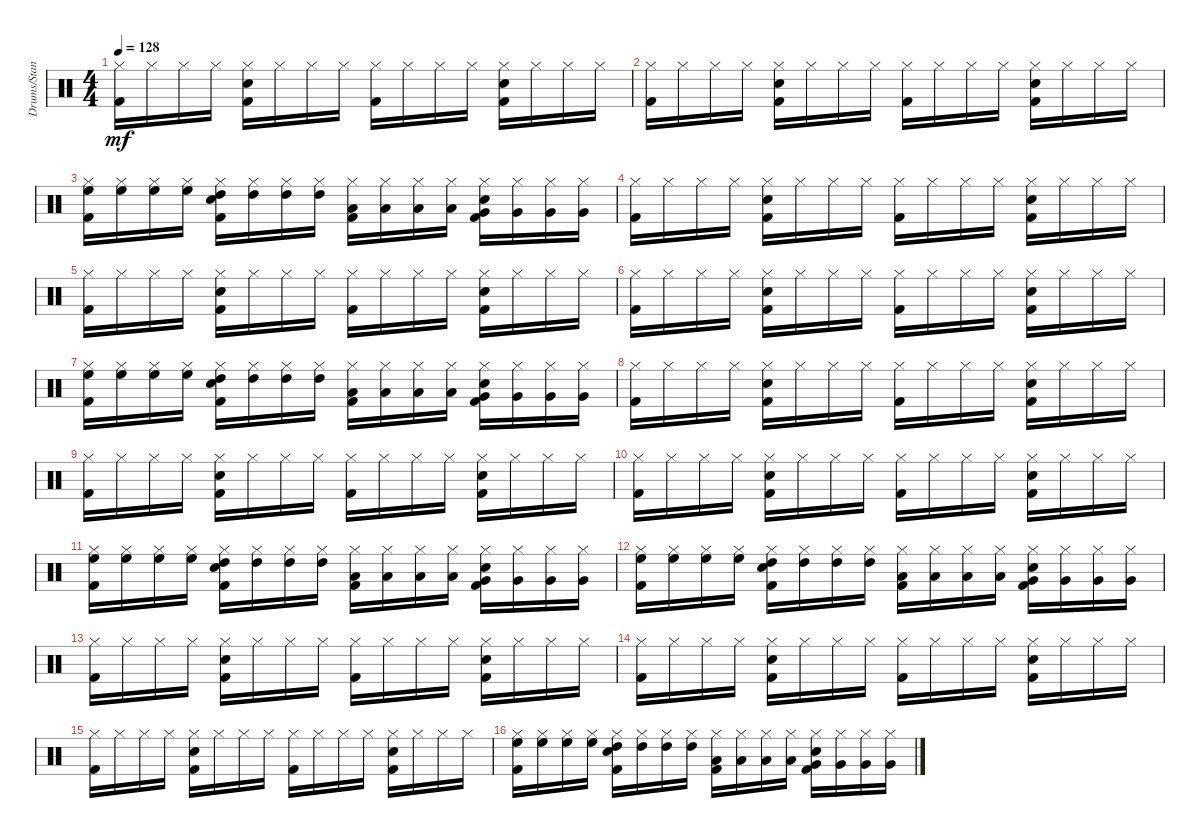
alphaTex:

\track ("Drums/Standard" "Drums/Stan") {instrument percussion}
\staff {score}
\articulation defaults
\ts (4 4)
\tempo 128
\clef neutral
\ks c
("Kick (hit) 2" "Hi-Hat (closed)").16{dy mf} "Hi-Hat (closed)".16 "Hi-Hat (closed)".16 "Hi-Hat (closed)".16 ("Snare (hit) 2" "Kick (hit) 2" "Hi-Hat (closed)").16 "Hi-Hat (closed)".16 "Hi-Hat (closed)".16 "Hi-Hat (closed)".16 ("Kick (hit) 2" "Hi-Hat (closed)").16 "Hi-Hat (closed)".16 "Hi-Hat (closed)".16 "Hi-Hat (closed)".16 ("Kick (hit) 2" "Hi-Hat (closed)" "Snare (hit) 2").16 "Hi-Hat (closed)".16 "Hi-Hat (closed)".16 "Hi-Hat (closed)".16 |
("Kick (hit) 2" "Hi-Hat (closed)").16 "Hi-Hat (closed)".16 "Hi-Hat (closed)".16 "Hi-Hat (closed)".16 ("Hi-Hat (closed)" "Kick (hit) 2" "Snare (hit) 2").16 "Hi-Hat (closed)".16 "Hi-Hat (closed)".16 "Hi-Hat (closed)".16 ("Kick (hit) 2" "Hi-Hat (closed)").16 "Hi-Hat (closed)".16 "Hi-Hat (closed)".16 "Hi-Hat (closed)".16 ("Kick (hit) 2" "Hi-Hat (closed)" "Snare (hit) 2").16 "Hi-Hat (closed)".16 "Hi-Hat (closed)".16 "Hi-Hat (closed)".16 |
("Kick (hit) 2" "Hi-Hat (closed)" "High Floor Tom (hit)").16 ("Hi-Hat (closed)" "High Floor Tom (hit)").16 ("Hi-Hat (closed)" "High Floor Tom (hit)").16 ("Hi-Hat (closed)" "High Floor Tom (hit)").16 ("Snare (hit) 2" "Kick (hit) 2" "Hi-Hat (closed)" "High Tom (hit)").16 ("Hi-Hat (closed)" "High Tom (hit)").16 ("Hi-Hat (closed)" "High Tom (hit)").16 ("Hi-Hat (closed)" "High Tom (hit)").16 ("Hi-Hat (closed)" "Kick (hit) 2" "Low Tom (hit)").16 ("Hi-Hat (closed)" "Low Tom (hit)").16 ("Hi-Hat (closed)" "Low Tom (hit)").16 ("Hi-Hat (closed)" "Low Tom (hit)").16 ("Hi-Hat (closed)" "Snare (hit) 2" "Kick (hit) 2" "Very Low Tom (hit)").16 ("Hi-Hat (closed)" "Very Low Tom (hit)").16 ("Hi-Hat (closed)" "Very Low Tom (hit)").16 ("Hi-Hat (closed)" "Very Low Tom (hit)").16 |
("Kick (hit) 2" "Hi-Hat (closed)").16 "Hi-Hat (closed)".16 "Hi-Hat (closed)".16 "Hi-Hat (closed)".16 ("Hi-Hat (closed)" "Kick (hit) 2" "Snare (hit) 2").16 "Hi-Hat (closed)".16 "Hi-Hat (closed)".16 "Hi-Hat (closed)".16 ("Kick (hit) 2" "Hi-Hat (closed)").16 "Hi-Hat (closed)".16 "Hi-Hat (closed)".16 "Hi-Hat (closed)".16 ("Kick (hit) 2" "Hi-Hat (closed)" "Snare (hit) 2").16 "Hi-Hat (closed)".16 "Hi-Hat (closed)".16 "Hi-Hat (closed)".16 |
("Hi-Hat (closed)" "Kick (hit) 2").16 "Hi-Hat (closed)".16 "Hi-Hat (closed)".16 "Hi-Hat (closed)".16 ("Hi-Hat (closed)" "Kick (hit) 2" "Snare (hit) 2").16 "Hi-Hat (closed)".16 "Hi-Hat (closed)".16 "Hi-Hat (closed)".16 ("Hi-Hat (closed)" "Kick (hit) 2").16 "Hi-Hat (closed)".16 "Hi-Hat (closed)".16 "Hi-Hat (closed)".16 ("Snare (hit) 2" "Hi-Hat (closed)" "Kick (hit) 2").16 "Hi-Hat (closed)".16 "Hi-Hat (closed)".16 "Hi-Hat (closed)".16 |
("Hi-Hat (closed)" "Kick (hit) 2").16 "Hi-Hat (closed)".16 "Hi-Hat (closed)".16 "Hi-Hat (closed)".16 ("Snare (hit) 2" "Kick (hit) 2" "Hi-Hat (closed)").16 "Hi-Hat (closed)".16 "Hi-Hat (closed)".16 "Hi-Hat (closed)".16 ("Hi-Hat (closed)" "Kick (hit) 2").16 "Hi-Hat (closed)".16 "Hi-Hat (closed)".16 "Hi-Hat (closed)".16 ("Snare (hit) 2" "Hi-Hat (closed)" "Kick (hit) 2").16 "Hi-Hat (closed)".16 "Hi-Hat (closed)".16 "Hi-Hat (closed)".16 |
("High Floor Tom (hit)" "Hi-Hat (closed)" "Kick (hit) 2").16 ("High Floor Tom (hit)" "Hi-Hat (closed)").16 ("High Floor Tom (hit)" "Hi-Hat (closed)").16 ("High Floor Tom (hit)" "Hi-Hat (closed)").16 ("High Tom (hit)" "Hi-Hat (closed)" "Kick (hit) 2" "Snare (hit) 2").16 ("High Tom (hit)" "Hi-Hat (closed)").16 ("High Tom (hit)" "Hi-Hat (closed)").16 ("High Tom (hit)" "Hi-Hat (closed)").16 ("Low Tom (hit)" "Kick (hit) 2" "Hi-Hat (closed)").16 ("Low Tom (hit)" "Hi-Hat (closed)").16 ("Low Tom (hit)" "Hi-Hat (closed)").16 ("Low Tom (hit)" "Hi-Hat (closed)").16 ("Very Low Tom (hit)" "Kick (hit) 2" "Snare (hit) 2" "Hi-Hat (closed)").16 ("Very Low Tom (hit)" "Hi-Hat (closed)").16 ("Very Low Tom (hit)" "Hi-Hat (closed)").16 ("Very Low Tom (hit)" "Hi-Hat (closed)").16 |
("Kick (hit) 2" "Hi-Hat (closed)").16 "Hi-Hat (closed)".16 "Hi-Hat (closed)".16 "Hi-Hat (closed)".16 ("Hi-Hat (closed)" "Kick (hit) 2" "Snare (hit) 2").16 "Hi-Hat (closed)".16 "Hi-Hat (closed)".16 "Hi-Hat (closed)".16 ("Kick (hit) 2" "Hi-Hat (closed)").16 "Hi-Hat (closed)".16 "Hi-Hat (closed)".16 "Hi-Hat (closed)".16 ("Kick (hit) 2" "Hi-Hat (closed)" "Snare (hit) 2").16 "Hi-Hat (closed)".16 "Hi-Hat (closed)".16 "Hi-Hat (closed)".16 |
("Hi-Hat (closed)" "Kick (hit) 2").16 "Hi-Hat (closed)".16 "Hi-Hat (closed)".16 "Hi-Hat (closed)".16 ("Hi-Hat (closed)" "Kick (hit) 2" "Snare (hit) 2").16 "Hi-Hat (closed)".16 "Hi-Hat (closed)".16 "Hi-Hat (closed)".16 ("Hi-Hat (closed)" "Kick (hit) 2").16 "Hi-Hat (closed)".16 "Hi-Hat (closed)".16 "Hi-Hat (closed)".16 ("Snare (hit) 2" "Hi-Hat (closed)" "Kick (hit) 2").16 "Hi-Hat (closed)".16 "Hi-Hat (closed)".16 "Hi-Hat (closed)".16 |
("Hi-Hat (closed)" "Kick (hit) 2").16 "Hi-Hat (closed)".16 "Hi-Hat (closed)".16 "Hi-Hat (closed)".16 ("Snare (hit) 2" "Kick (hit) 2" "Hi-Hat (closed)").16 "Hi-Hat (closed)".16 "Hi-Hat (closed)".16 "Hi-Hat (closed)".16 ("Hi-Hat (closed)" "Kick (hit) 2").16 "Hi-Hat (closed)".16 "Hi-Hat (closed)".16 "Hi-Hat (closed)".16 ("Snare (hit) 2" "Hi-Hat (closed)" "Kick (hit) 2").16 "Hi-Hat (closed)".16 "Hi-Hat (closed)".16 "Hi-Hat (closed)".16 |
("High Floor Tom (hit)" "Hi-Hat (closed)" "Kick (hit) 2").16 ("High Floor Tom (hit)" "Hi-Hat (closed)").16 ("High Floor Tom (hit)" "Hi-Hat (closed)").16 ("High Floor Tom (hit)" "Hi-Hat (closed)").16 ("High Tom (hit)" "Hi-Hat (closed)" "Kick (hit) 2" "Snare (hit) 2").16 ("High Tom (hit)" "Hi-Hat (closed)").16 ("High Tom (hit)" "Hi-Hat (closed)").16 ("High Tom (hit)" "Hi-Hat (closed)").16 ("Low Tom (hit)" "Kick (hit) 2" "Hi-Hat (closed)").16 ("Low Tom (hit)" "Hi-Hat (closed)").16 ("Low Tom (hit)" "Hi-Hat (closed)").16 ("Low Tom (hit)" "Hi-Hat (closed)").16 ("Very Low Tom (hit)" "Kick (hit) 2" "Snare (hit) 2" "Hi-Hat (closed)").16 ("Very Low Tom (hit)" "Hi-Hat (closed)").16 ("Very Low Tom (hit)" "Hi-Hat (closed)").16 ("Very Low Tom (hit)" "Hi-Hat (closed)").16 |
("High Floor Tom (hit)" "Hi-Hat (closed)" "Kick (hit) 2").16 ("High Floor Tom (hit)" "Hi-Hat (closed)").16 ("High Floor Tom (hit)" "Hi-Hat (closed)").16 ("High Floor Tom (hit)" "Hi-Hat (closed)").16 ("High Tom (hit)" "Hi-Hat (closed)" "Kick (hit) 2" "Snare (hit) 2").16 ("High Tom (hit)" "Hi-Hat (closed)").16 ("High Tom (hit)" "Hi-Hat (closed)").16 ("High Tom (hit)" "Hi-Hat (closed)").16 ("Low Tom (hit)" "Kick (hit) 2" "Hi-Hat (closed)").16 ("Low Tom (hit)" "Hi-Hat (closed)").16 ("Low Tom (hit)" "Hi-Hat (closed)").16 ("Low Tom (hit)" "Hi-Hat (closed)").16 ("Very Low Tom (hit)" "Kick (hit) 2" "Snare (hit) 2" "Hi-Hat (closed)").16 ("Very Low Tom (hit)" "Hi-Hat (closed)").16 ("Very Low Tom (hit)" "Hi-Hat (closed)").16 ("Very Low Tom (hit)" "Hi-Hat (closed)").16 |
("Kick (hit) 2" "Hi-Hat (closed)").16 "Hi-Hat (closed)".16 "Hi-Hat (closed)".16 "Hi-Hat (closed)".16 ("Snare (hit) 2" "Kick (hit) 2" "Hi-Hat (closed)").16 "Hi-Hat (closed)".16 "Hi-Hat (closed)".16 "Hi-Hat (closed)".16 ("Kick (hit) 2" "Hi-Hat (closed)").16 "Hi-Hat (closed)".16 "Hi-Hat (closed)".16 "Hi-Hat (closed)".16 ("Kick (hit) 2" "Hi-Hat (closed)" "Snare (hit) 2").16 "Hi-Hat (closed)".16 "Hi-Hat (closed)".16 "Hi-Hat (closed)".16 |
("Hi-Hat (closed)" "Kick (hit) 2").16 "Hi-Hat (closed)".16 "Hi-Hat (closed)".16 "Hi-Hat (closed)".16 ("Hi-Hat (closed)" "Kick (hit) 2" "Snare (hit) 2").16 "Hi-Hat (closed)".16 "Hi-Hat (closed)".16 "Hi-Hat (closed)".16 ("Kick (hit) 2" "Hi-Hat (closed)").16 "Hi-Hat (closed)".16 "Hi-Hat (closed)".16 "Hi-Hat (closed)".16 ("Kick (hit) 2" "Snare (hit) 2" "Hi-Hat (closed)").16 "Hi-Hat (closed)".16 "Hi-Hat (closed)".16 "Hi-Hat (closed)".16 |
("Hi-Hat (closed)" "Kick (hit) 2").16 "Hi-Hat (closed)".16 "Hi-Hat (closed)".16 "Hi-Hat (closed)".16 ("Hi-Hat (closed)" "Kick (hit) 2" "Snare (hit) 2").16 "Hi-Hat (closed)".16 "Hi-Hat (closed)".16 "Hi-Hat (closed)".16 ("Hi-Hat (closed)" "Kick (hit) 2").16 "Hi-Hat (closed)".16 "Hi-Hat (closed)".16 "Hi-Hat (closed)".16 ("Snare (hit) 2" "Hi-Hat (closed)" "Kick (hit) 2").16 "Hi-Hat (closed)".16 "Hi-Hat (closed)".16 "Hi-Hat (closed)".16 |
("Kick (hit) 2" "Hi-Hat (closed)" "High Floor Tom (hit)").16 ("Hi-Hat (closed)" "High Floor Tom (hit)").16 ("Hi-Hat (closed)" "High Floor Tom (hit)").16 ("Hi-Hat (closed)" "High Floor Tom (hit)").16 ("Snare (hit) 2" "Kick (hit) 2" "Hi-Hat (closed)" "High Tom (hit)").16 ("Hi-Hat (closed)" "High Tom (hit)").16 ("Hi-Hat (closed)" "High Tom (hit)").16 ("Hi-Hat (closed)" "High Tom (hit)").16 ("Hi-Hat (closed)" "Kick (hit) 2" "Low Tom (hit)").16 ("Hi-Hat (closed)" "Low Tom (hit)").16 ("Hi-Hat (closed)" "Low Tom (hit)").16 ("Hi-Hat (closed)" "Low Tom (hit)").16 ("Hi-Hat (closed)" "Snare (hit) 2" "Kick (hit) 2" "Very Low Tom (hit)").16 ("Hi-Hat (closed)" "Very Low Tom (hit)").16 ("Hi-Hat (closed)" "Very Low Tom (hit)").16 ("Hi-Hat (closed)" "Very Low Tom (hit)").16
